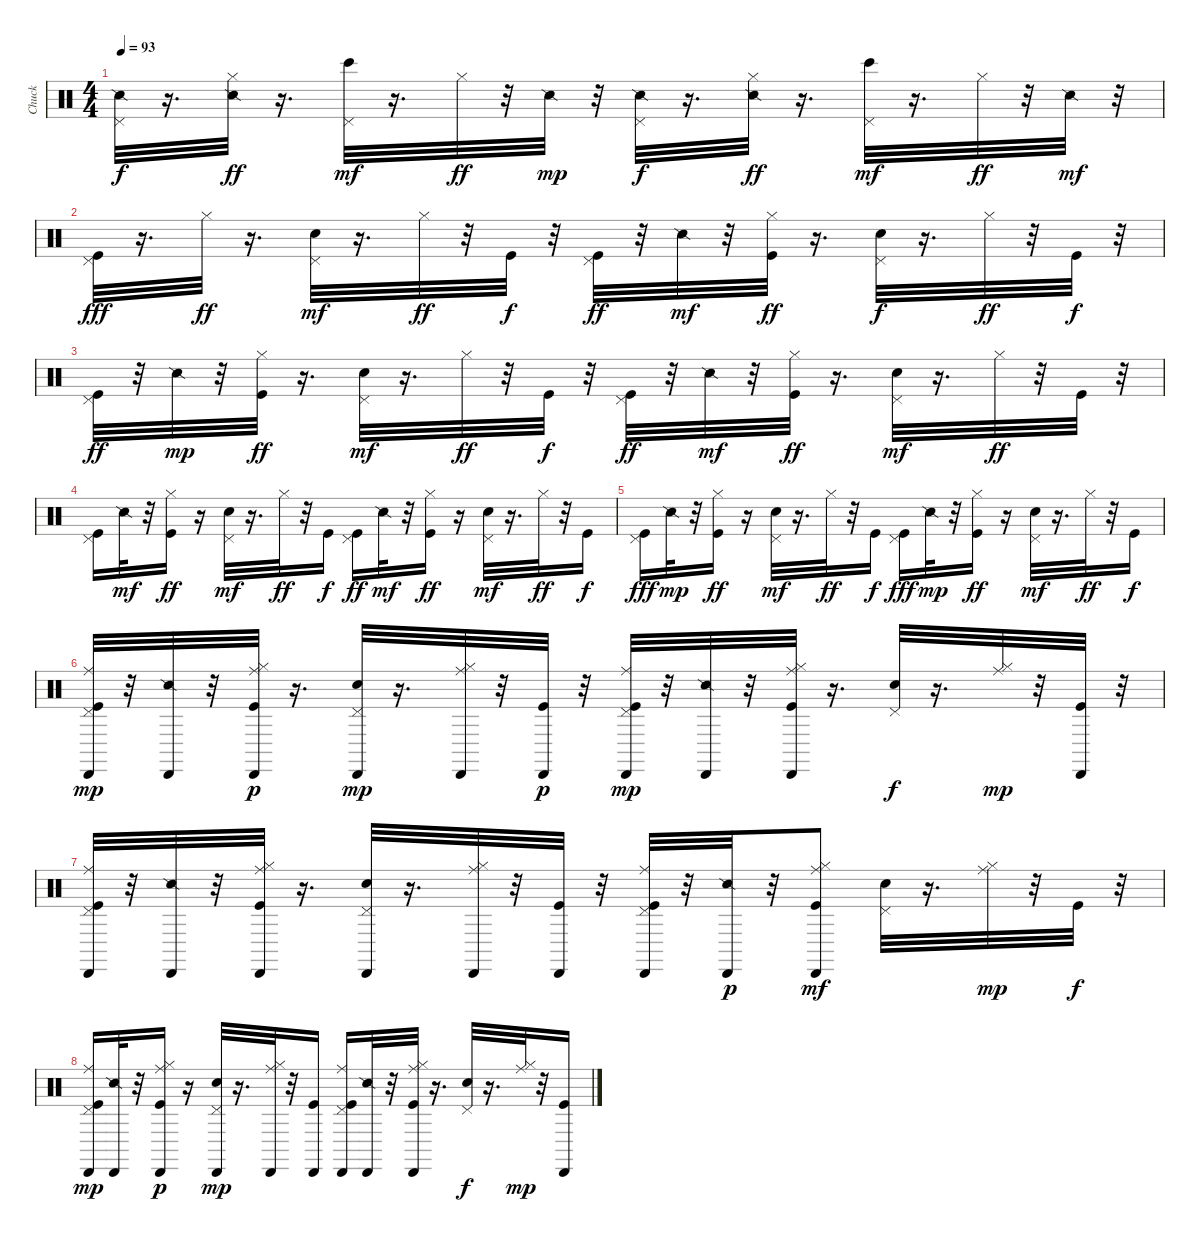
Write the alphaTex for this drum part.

\track ("Chuck" "Chuck") {instrument percussion}
\staff {score}
\articulation defaults
\ts (4 4)
\tempo 93
\clef neutral
\ks c
("Snare (side stick) 2" "Pedal Hi-Hat (hit)").32{dy f} r.16{d} ("Snare (side stick) 2" "Hi-Hat (closed)").32{dy ff} r.16{d} ("Bongo High (hit)" "Pedal Hi-Hat (hit)").32{dy mf} r.16{d} "Hi-Hat (closed)".32{dy ff} r.32 "Snare (side stick) 2".32{dy mp} r.32 ("Snare (side stick) 2" "Pedal Hi-Hat (hit)").32{dy f} r.16{d} ("Snare (side stick) 2" "Hi-Hat (closed)").32{dy ff} r.16{d} ("Bongo High (hit)" "Pedal Hi-Hat (hit)").32{dy mf} r.16{d} "Hi-Hat (closed)".32{dy ff} r.32 "Snare (side stick) 2".32{dy mf} r.32 |
("Kick (hit)" "Pedal Hi-Hat (hit)").32{dy fff} r.16{d} "Hi-Hat (closed)".32{dy ff} r.16{d} ("Electric Snare (hit)" "Pedal Hi-Hat (hit)").32{dy mf} r.16{d} "Hi-Hat (closed)".32{dy ff} r.32 "Kick (hit)".32{dy f} r.32 ("Kick (hit)" "Pedal Hi-Hat (hit)").32{dy ff} r.32 "Snare (side stick) 2".32{dy mf} r.32 ("Kick (hit)" "Hi-Hat (closed)").32{dy ff} r.16{d} ("Electric Snare (hit)" "Pedal Hi-Hat (hit)").32{dy f} r.16{d} "Hi-Hat (closed)".32{dy ff} r.32 "Kick (hit)".32{dy f} r.32 |
("Kick (hit)" "Pedal Hi-Hat (hit)").32{dy ff} r.32 "Snare (side stick) 2".32{dy mp} r.32 ("Kick (hit)" "Hi-Hat (closed)").32{dy ff} r.16{d} ("Electric Snare (hit)" "Pedal Hi-Hat (hit)").32{dy mf} r.16{d} "Hi-Hat (closed)".32{dy ff} r.32 "Kick (hit)".32{dy f} r.32 ("Kick (hit)" "Pedal Hi-Hat (hit)").32{dy ff} r.32 "Snare (side stick) 2".32{dy mf} r.32 ("Kick (hit)" "Hi-Hat (closed)").32{dy ff} r.16{d} ("Electric Snare (hit)" "Pedal Hi-Hat (hit)").32{dy mf} r.16{d} "Hi-Hat (closed)".32{dy ff} r.32 "Kick (hit)".32 r.32 |
("Kick (hit)" "Pedal Hi-Hat (hit)").16 "Snare (side stick) 2".32{dy mf} r.32 ("Kick (hit)" "Hi-Hat (closed)").16{dy ff} r.16 ("Electric Snare (hit)" "Pedal Hi-Hat (hit)").32{dy mf} r.16{d} "Hi-Hat (closed)".32{dy ff} r.32 "Kick (hit)".16{dy f} ("Kick (hit)" "Pedal Hi-Hat (hit)").16{dy ff} "Snare (side stick) 2".32{dy mf} r.32 ("Kick (hit)" "Hi-Hat (closed)").16{dy ff} r.16 ("Electric Snare (hit)" "Pedal Hi-Hat (hit)").32{dy mf} r.16{d} "Hi-Hat (closed)".32{dy ff} r.32 "Kick (hit)".16{dy f} |
("Kick (hit)" "Pedal Hi-Hat (hit)").16{dy fff} "Snare (side stick) 2".32{dy mp} r.32 ("Kick (hit)" "Hi-Hat (closed)").16{dy ff} r.16 ("Electric Snare (hit)" "Pedal Hi-Hat (hit)").32{dy mf} r.16{d} "Hi-Hat (closed)".32{dy ff} r.32 "Kick (hit)".16{dy f} ("Kick (hit)" "Pedal Hi-Hat (hit)").16{dy fff} "Snare (side stick) 2".32{dy mp} r.32 ("Kick (hit)" "Hi-Hat (closed)").16{dy ff} r.16 ("Electric Snare (hit)" "Pedal Hi-Hat (hit)").32{dy mf} r.16{d} "Hi-Hat (closed)".32{dy ff} r.32 "Kick (hit)".16{dy f} |
("Kick (hit)" "Pedal Hi-Hat (hit)" "Ride (middle)" "Cabasa (hit)").32{dy mp} r.32 ("Snare (side stick) 2" "Cabasa (hit)").32 r.32 ("Kick (hit)" "Hi-Hat (closed)" "Ride (middle)" "Cabasa (hit)").32{dy p} r.16{d} ("Electric Snare (hit)" "Pedal Hi-Hat (hit)" "Cabasa (hit)").32{dy mp} r.16{d} ("Hi-Hat (closed)" "Ride (middle)" "Cabasa (hit)").32 r.32 ("Kick (hit)" "Cabasa (hit)").32{dy p} r.32 ("Kick (hit)" "Pedal Hi-Hat (hit)" "Ride (middle)" "Cabasa (hit)").32{dy mp} r.32 ("Snare (side stick) 2" "Cabasa (hit)").32 r.32 ("Kick (hit)" "Hi-Hat (closed)" "Ride (middle)" "Cabasa (hit)").32 r.16{d} ("Electric Snare (hit)" "Pedal Hi-Hat (hit)").32{dy f} r.16{d} ("Hi-Hat (closed)" "Ride (middle)").32{dy mp} r.32 ("Kick (hit)" "Cabasa (hit)").32 r.32 |
("Kick (hit)" "Pedal Hi-Hat (hit)" "Ride (middle)" "Cabasa (hit)").32 r.32 ("Snare (side stick) 2" "Cabasa (hit)").32 r.32 ("Kick (hit)" "Hi-Hat (closed)" "Ride (middle)" "Cabasa (hit)").32 r.16{d} ("Electric Snare (hit)" "Pedal Hi-Hat (hit)" "Cabasa (hit)").32 r.16{d} ("Hi-Hat (closed)" "Ride (middle)" "Cabasa (hit)").32 r.32 ("Kick (hit)" "Cabasa (hit)").32 r.32 ("Kick (hit)" "Pedal Hi-Hat (hit)" "Ride (middle)" "Cabasa (hit)").32 r.32 ("Snare (side stick) 2" "Cabasa (hit)").32{dy p} r.32 ("Kick (hit)" "Hi-Hat (closed)" "Ride (middle)" "Cabasa (hit)").8{dy mf} ("Electric Snare (hit)" "Pedal Hi-Hat (hit)").32 r.16{d} ("Hi-Hat (closed)" "Ride (middle)").32{dy mp} r.32 "Kick (hit)".32{dy f} r.32 |
("Kick (hit)" "Pedal Hi-Hat (hit)" "Ride (middle)" "Cabasa (hit)").16{dy mp} ("Snare (side stick) 2" "Cabasa (hit)").32 r.32 ("Kick (hit)" "Hi-Hat (closed)" "Ride (middle)" "Cabasa (hit)").16{dy p} r.16 ("Electric Snare (hit)" "Pedal Hi-Hat (hit)" "Cabasa (hit)").32{dy mp} r.16{d} ("Hi-Hat (closed)" "Ride (middle)" "Cabasa (hit)").32 r.32 ("Kick (hit)" "Cabasa (hit)").16 ("Kick (hit)" "Pedal Hi-Hat (hit)" "Ride (middle)" "Cabasa (hit)").16 ("Snare (side stick) 2" "Cabasa (hit)").32 r.32 ("Kick (hit)" "Hi-Hat (closed)" "Ride (middle)" "Cabasa (hit)").32 r.16{d} ("Electric Snare (hit)" "Pedal Hi-Hat (hit)").32{dy f} r.16{d} ("Hi-Hat (closed)" "Ride (middle)").32{dy mp} r.32 ("Kick (hit)" "Cabasa (hit)").16
